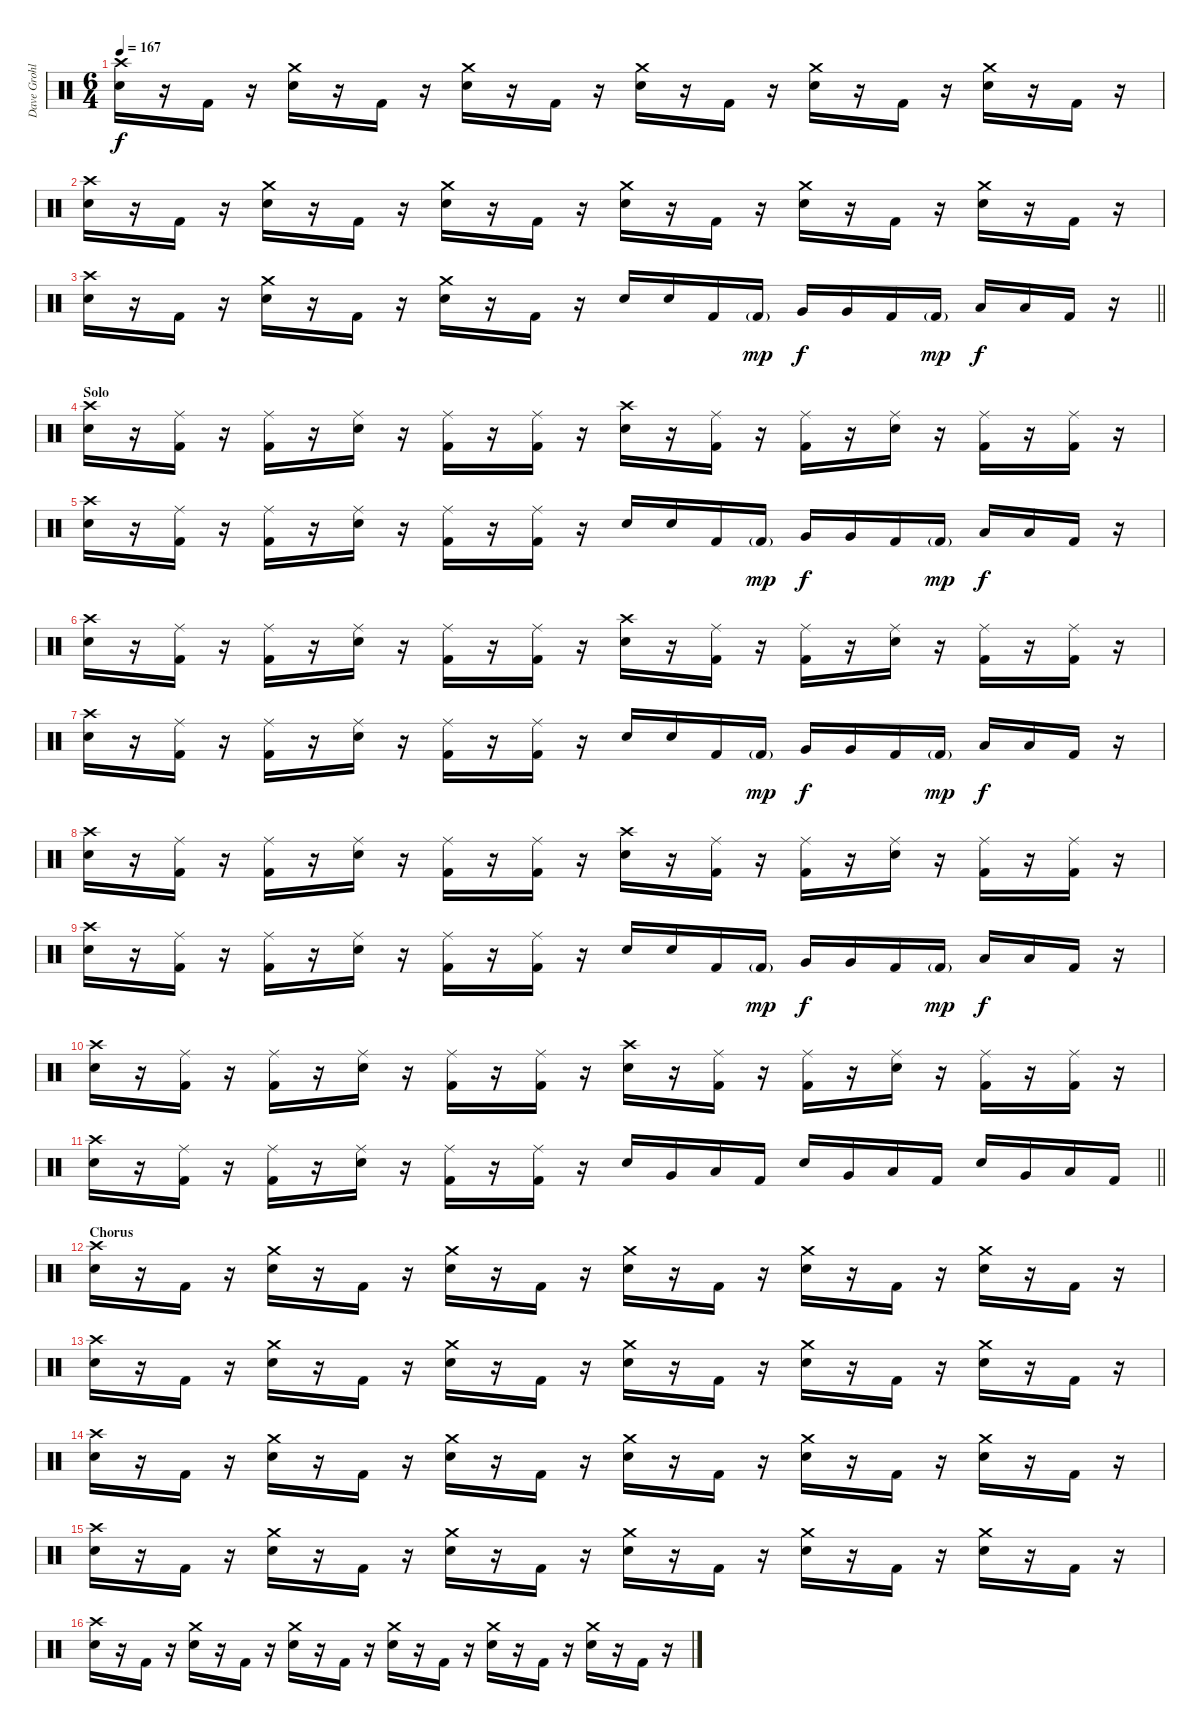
\track ("Dave Grohl" "Dave Grohl") {instrument percussion}
\staff {score}
\articulation defaults
\ts (6 4)
\tempo 167
\clef neutral
\ks c
("Crash high (hit)" "Electric Snare (hit)").16{dy f} r.16 "Kick (hit) 2".16 r.16 ("Crash medium (hit)" "Electric Snare (hit)").16 r.16 "Kick (hit) 2".16 r.16 ("Crash medium (hit)" "Electric Snare (hit)").16 r.16 "Kick (hit) 2".16 r.16 ("Crash medium (hit)" "Electric Snare (hit)").16 r.16 "Kick (hit) 2".16 r.16 ("Crash medium (hit)" "Electric Snare (hit)").16 r.16 "Kick (hit) 2".16 r.16 ("Crash medium (hit)" "Electric Snare (hit)").16 r.16 "Kick (hit) 2".16 r.16 |
("Crash high (hit)" "Electric Snare (hit)").16 r.16 "Kick (hit) 2".16 r.16 ("Crash medium (hit)" "Electric Snare (hit)").16 r.16 "Kick (hit) 2".16 r.16 ("Crash medium (hit)" "Electric Snare (hit)").16 r.16 "Kick (hit) 2".16 r.16 ("Crash medium (hit)" "Electric Snare (hit)").16 r.16 "Kick (hit) 2".16 r.16 ("Crash medium (hit)" "Electric Snare (hit)").16 r.16 "Kick (hit) 2".16 r.16 ("Crash medium (hit)" "Electric Snare (hit)").16 r.16 "Kick (hit) 2".16 r.16 |
\barLineRight lightlight
("Crash high (hit)" "Electric Snare (hit)").16 r.16 "Kick (hit) 2".16 r.16 ("Crash medium (hit)" "Electric Snare (hit)").16 r.16 "Kick (hit) 2".16 r.16 ("Crash medium (hit)" "Electric Snare (hit)").16 r.16 "Kick (hit) 2".16 r.16 "Electric Snare (hit)".16 "Electric Snare (hit)".16 "Kick (hit) 2".16 "Kick (hit) 2"{g}.16{dy mp} "Very Low Tom (hit)".16{dy f} "Very Low Tom (hit)".16 "Kick (hit) 2".16 "Kick (hit) 2"{g}.16{dy mp} "Low Floor Tom (hit)".16{dy f} "Low Floor Tom (hit)".16 "Kick (hit) 2".16 r.16 |
\section ("" "Solo")
("Crash high (hit)" "Electric Snare (hit)").16 r.16 ("Ride (middle)" "Kick (hit) 2").16 r.16 ("Ride (middle)" "Kick (hit) 2").16 r.16 ("Ride (middle)" "Electric Snare (hit)").16 r.16 ("Ride (middle)" "Kick (hit) 2").16 r.16 ("Ride (middle)" "Kick (hit) 2").16 r.16 ("Crash high (hit)" "Electric Snare (hit)").16 r.16 ("Ride (middle)" "Kick (hit) 2").16 r.16 ("Ride (middle)" "Kick (hit) 2").16 r.16 ("Ride (middle)" "Electric Snare (hit)").16 r.16 ("Ride (middle)" "Kick (hit) 2").16 r.16 ("Ride (middle)" "Kick (hit) 2").16 r.16 |
("Crash high (hit)" "Electric Snare (hit)").16 r.16 ("Ride (middle)" "Kick (hit) 2").16 r.16 ("Ride (middle)" "Kick (hit) 2").16 r.16 ("Ride (middle)" "Electric Snare (hit)").16 r.16 ("Ride (middle)" "Kick (hit) 2").16 r.16 ("Ride (middle)" "Kick (hit) 2").16 r.16 "Electric Snare (hit)".16 "Electric Snare (hit)".16 "Kick (hit) 2".16 "Kick (hit) 2"{g}.16{dy mp} "Very Low Tom (hit)".16{dy f} "Very Low Tom (hit)".16 "Kick (hit) 2".16 "Kick (hit) 2"{g}.16{dy mp} "Low Floor Tom (hit)".16{dy f} "Low Floor Tom (hit)".16 "Kick (hit) 2".16 r.16 |
("Crash high (hit)" "Electric Snare (hit)").16 r.16 ("Ride (middle)" "Kick (hit) 2").16 r.16 ("Ride (middle)" "Kick (hit) 2").16 r.16 ("Ride (middle)" "Electric Snare (hit)").16 r.16 ("Ride (middle)" "Kick (hit) 2").16 r.16 ("Ride (middle)" "Kick (hit) 2").16 r.16 ("Crash high (hit)" "Electric Snare (hit)").16 r.16 ("Ride (middle)" "Kick (hit) 2").16 r.16 ("Ride (middle)" "Kick (hit) 2").16 r.16 ("Ride (middle)" "Electric Snare (hit)").16 r.16 ("Ride (middle)" "Kick (hit) 2").16 r.16 ("Ride (middle)" "Kick (hit) 2").16 r.16 |
("Crash high (hit)" "Electric Snare (hit)").16 r.16 ("Ride (middle)" "Kick (hit) 2").16 r.16 ("Ride (middle)" "Kick (hit) 2").16 r.16 ("Ride (middle)" "Electric Snare (hit)").16 r.16 ("Ride (middle)" "Kick (hit) 2").16 r.16 ("Ride (middle)" "Kick (hit) 2").16 r.16 "Electric Snare (hit)".16 "Electric Snare (hit)".16 "Kick (hit) 2".16 "Kick (hit) 2"{g}.16{dy mp} "Very Low Tom (hit)".16{dy f} "Very Low Tom (hit)".16 "Kick (hit) 2".16 "Kick (hit) 2"{g}.16{dy mp} "Low Floor Tom (hit)".16{dy f} "Low Floor Tom (hit)".16 "Kick (hit) 2".16 r.16 |
("Crash high (hit)" "Electric Snare (hit)").16 r.16 ("Ride (middle)" "Kick (hit) 2").16 r.16 ("Ride (middle)" "Kick (hit) 2").16 r.16 ("Ride (middle)" "Electric Snare (hit)").16 r.16 ("Ride (middle)" "Kick (hit) 2").16 r.16 ("Ride (middle)" "Kick (hit) 2").16 r.16 ("Crash high (hit)" "Electric Snare (hit)").16 r.16 ("Ride (middle)" "Kick (hit) 2").16 r.16 ("Ride (middle)" "Kick (hit) 2").16 r.16 ("Ride (middle)" "Electric Snare (hit)").16 r.16 ("Ride (middle)" "Kick (hit) 2").16 r.16 ("Ride (middle)" "Kick (hit) 2").16 r.16 |
("Crash high (hit)" "Electric Snare (hit)").16 r.16 ("Ride (middle)" "Kick (hit) 2").16 r.16 ("Ride (middle)" "Kick (hit) 2").16 r.16 ("Ride (middle)" "Electric Snare (hit)").16 r.16 ("Ride (middle)" "Kick (hit) 2").16 r.16 ("Ride (middle)" "Kick (hit) 2").16 r.16 "Electric Snare (hit)".16 "Electric Snare (hit)".16 "Kick (hit) 2".16 "Kick (hit) 2"{g}.16{dy mp} "Very Low Tom (hit)".16{dy f} "Very Low Tom (hit)".16 "Kick (hit) 2".16 "Kick (hit) 2"{g}.16{dy mp} "Low Floor Tom (hit)".16{dy f} "Low Floor Tom (hit)".16 "Kick (hit) 2".16 r.16 |
("Crash high (hit)" "Electric Snare (hit)").16 r.16 ("Ride (middle)" "Kick (hit) 2").16 r.16 ("Ride (middle)" "Kick (hit) 2").16 r.16 ("Ride (middle)" "Electric Snare (hit)").16 r.16 ("Ride (middle)" "Kick (hit) 2").16 r.16 ("Ride (middle)" "Kick (hit) 2").16 r.16 ("Crash high (hit)" "Electric Snare (hit)").16 r.16 ("Ride (middle)" "Kick (hit) 2").16 r.16 ("Ride (middle)" "Kick (hit) 2").16 r.16 ("Ride (middle)" "Electric Snare (hit)").16 r.16 ("Ride (middle)" "Kick (hit) 2").16 r.16 ("Ride (middle)" "Kick (hit) 2").16 r.16 |
\barLineRight lightlight
("Crash high (hit)" "Electric Snare (hit)").16 r.16 ("Ride (middle)" "Kick (hit) 2").16 r.16 ("Ride (middle)" "Kick (hit) 2").16 r.16 ("Ride (middle)" "Electric Snare (hit)").16 r.16 ("Ride (middle)" "Kick (hit) 2").16 r.16 ("Ride (middle)" "Kick (hit) 2").16 r.16 "Electric Snare (hit)".16 "Very Low Tom (hit)".16 "Low Floor Tom (hit)".16 "Kick (hit) 2".16 "Electric Snare (hit)".16 "Very Low Tom (hit)".16 "Low Floor Tom (hit)".16 "Kick (hit) 2".16 "Electric Snare (hit)".16 "Very Low Tom (hit)".16 "Low Floor Tom (hit)".16 "Kick (hit) 2".16 |
\section ("" "Chorus")
("Crash high (hit)" "Electric Snare (hit)").16 r.16 "Kick (hit) 2".16 r.16 ("Crash medium (hit)" "Electric Snare (hit)").16 r.16 "Kick (hit) 2".16 r.16 ("Crash medium (hit)" "Electric Snare (hit)").16 r.16 "Kick (hit) 2".16 r.16 ("Crash medium (hit)" "Electric Snare (hit)").16 r.16 "Kick (hit) 2".16 r.16 ("Crash medium (hit)" "Electric Snare (hit)").16 r.16 "Kick (hit) 2".16 r.16 ("Crash medium (hit)" "Electric Snare (hit)").16 r.16 "Kick (hit) 2".16 r.16 |
("Crash high (hit)" "Electric Snare (hit)").16 r.16 "Kick (hit) 2".16 r.16 ("Crash medium (hit)" "Electric Snare (hit)").16 r.16 "Kick (hit) 2".16 r.16 ("Crash medium (hit)" "Electric Snare (hit)").16 r.16 "Kick (hit) 2".16 r.16 ("Crash medium (hit)" "Electric Snare (hit)").16 r.16 "Kick (hit) 2".16 r.16 ("Crash medium (hit)" "Electric Snare (hit)").16 r.16 "Kick (hit) 2".16 r.16 ("Crash medium (hit)" "Electric Snare (hit)").16 r.16 "Kick (hit) 2".16 r.16 |
("Crash high (hit)" "Electric Snare (hit)").16 r.16 "Kick (hit) 2".16 r.16 ("Crash medium (hit)" "Electric Snare (hit)").16 r.16 "Kick (hit) 2".16 r.16 ("Crash medium (hit)" "Electric Snare (hit)").16 r.16 "Kick (hit) 2".16 r.16 ("Crash medium (hit)" "Electric Snare (hit)").16 r.16 "Kick (hit) 2".16 r.16 ("Crash medium (hit)" "Electric Snare (hit)").16 r.16 "Kick (hit) 2".16 r.16 ("Crash medium (hit)" "Electric Snare (hit)").16 r.16 "Kick (hit) 2".16 r.16 |
("Crash high (hit)" "Electric Snare (hit)").16 r.16 "Kick (hit) 2".16 r.16 ("Crash medium (hit)" "Electric Snare (hit)").16 r.16 "Kick (hit) 2".16 r.16 ("Crash medium (hit)" "Electric Snare (hit)").16 r.16 "Kick (hit) 2".16 r.16 ("Crash medium (hit)" "Electric Snare (hit)").16 r.16 "Kick (hit) 2".16 r.16 ("Crash medium (hit)" "Electric Snare (hit)").16 r.16 "Kick (hit) 2".16 r.16 ("Crash medium (hit)" "Electric Snare (hit)").16 r.16 "Kick (hit) 2".16 r.16 |
("Crash high (hit)" "Electric Snare (hit)").16 r.16 "Kick (hit) 2".16 r.16 ("Crash medium (hit)" "Electric Snare (hit)").16 r.16 "Kick (hit) 2".16 r.16 ("Crash medium (hit)" "Electric Snare (hit)").16 r.16 "Kick (hit) 2".16 r.16 ("Crash medium (hit)" "Electric Snare (hit)").16 r.16 "Kick (hit) 2".16 r.16 ("Crash medium (hit)" "Electric Snare (hit)").16 r.16 "Kick (hit) 2".16 r.16 ("Crash medium (hit)" "Electric Snare (hit)").16 r.16 "Kick (hit) 2".16 r.16
